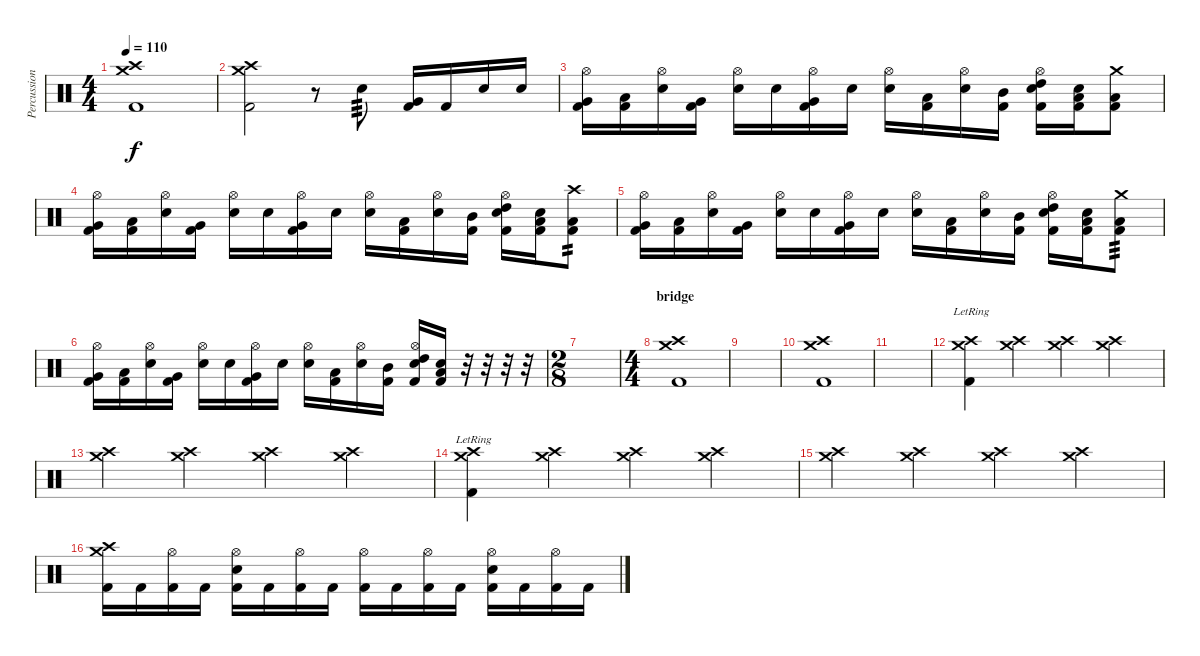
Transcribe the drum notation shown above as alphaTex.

\track ("Percussion" "Percussion") {instrument percussion}
\staff {score}
\articulation defaults
\ts (4 4)
\tempo 110
\clef neutral
\ks c
("Crash high (hit)" "Crash medium (hit)" "Kick (hit) 2").1{dy f} |
("Crash high (hit)" "Crash medium (hit)" "Kick (hit) 2").2 r.8 "Electric Snare (hit)".8{tp 3} ("Very Low Tom (hit)" "Kick (hit) 2").16 "Kick (hit) 2".16 "Electric Snare (hit)".16 "Electric Snare (hit)".16 |
("Hi-Hat (open)" "Very Low Tom (hit)" "Kick (hit) 2").16 ("Low Floor Tom (hit)" "Kick (hit) 2").16 ("Hi-Hat (open)" "Electric Snare (hit)").16 ("Very Low Tom (hit)" "Kick (hit) 2").16 ("Hi-Hat (open)" "Electric Snare (hit)").16 "Electric Snare (hit)".16 ("Hi-Hat (open)" "Very Low Tom (hit)" "Kick (hit) 2").16 "Electric Snare (hit)".16 ("Hi-Hat (open)" "Electric Snare (hit)").16 ("Low Floor Tom (hit)" "Kick (hit) 2").16 ("Hi-Hat (open)" "Electric Snare (hit)").16 ("Mid Tom (hit)" "Kick (hit) 2").16 ("Hi-Hat (open)" "Electric Snare (hit)" "High Tom (hit)" "Kick (hit) 2").16 ("Electric Snare (hit)" "Low Tom (hit)" "Kick (hit) 2").16 ("Crash medium (hit)" "Low Floor Tom (hit)" "Kick (hit) 2").8 |
("Hi-Hat (open)" "Very Low Tom (hit)" "Kick (hit) 2").16 ("Low Floor Tom (hit)" "Kick (hit) 2").16 ("Hi-Hat (open)" "Electric Snare (hit)").16 ("Very Low Tom (hit)" "Kick (hit) 2").16 ("Hi-Hat (open)" "Electric Snare (hit)").16 "Electric Snare (hit)".16 ("Hi-Hat (open)" "Very Low Tom (hit)" "Kick (hit) 2").16 "Electric Snare (hit)".16 ("Hi-Hat (open)" "Electric Snare (hit)").16 ("Low Floor Tom (hit)" "Kick (hit) 2").16 ("Hi-Hat (open)" "Electric Snare (hit)").16 ("Mid Tom (hit)" "Kick (hit) 2").16 ("Hi-Hat (open)" "Electric Snare (hit)" "High Tom (hit)" "Kick (hit) 2").16 ("Electric Snare (hit)" "Low Tom (hit)" "Kick (hit) 2").16 ("Crash high (hit)" "Low Floor Tom (hit)" "Kick (hit) 2").8{tp 2} |
("Hi-Hat (open)" "Very Low Tom (hit)" "Kick (hit) 2").16 ("Low Floor Tom (hit)" "Kick (hit) 2").16 ("Hi-Hat (open)" "Electric Snare (hit)").16 ("Very Low Tom (hit)" "Kick (hit) 2").16 ("Hi-Hat (open)" "Electric Snare (hit)").16 "Electric Snare (hit)".16 ("Hi-Hat (open)" "Very Low Tom (hit)" "Kick (hit) 2").16 "Electric Snare (hit)".16 ("Hi-Hat (open)" "Electric Snare (hit)").16 ("Low Floor Tom (hit)" "Kick (hit) 2").16 ("Hi-Hat (open)" "Electric Snare (hit)").16 ("Mid Tom (hit)" "Kick (hit) 2").16 ("Hi-Hat (open)" "Electric Snare (hit)" "High Tom (hit)" "Kick (hit) 2").16 ("Electric Snare (hit)" "Low Tom (hit)" "Kick (hit) 2").16 ("Crash medium (hit)" "Low Floor Tom (hit)" "Kick (hit) 2").8{tp 3} |
("Hi-Hat (open)" "Very Low Tom (hit)" "Kick (hit) 2").16 ("Low Floor Tom (hit)" "Kick (hit) 2").16 ("Hi-Hat (open)" "Electric Snare (hit)").16 ("Very Low Tom (hit)" "Kick (hit) 2").16 ("Hi-Hat (open)" "Electric Snare (hit)").16 "Electric Snare (hit)".16 ("Hi-Hat (open)" "Very Low Tom (hit)" "Kick (hit) 2").16 "Electric Snare (hit)".16 ("Hi-Hat (open)" "Electric Snare (hit)").16 ("Low Floor Tom (hit)" "Kick (hit) 2").16 ("Hi-Hat (open)" "Electric Snare (hit)").16 ("Mid Tom (hit)" "Kick (hit) 2").16 ("Hi-Hat (open)" "Electric Snare (hit)" "High Tom (hit)" "Kick (hit) 2").16 ("Electric Snare (hit)" "Low Tom (hit)" "Kick (hit) 2").16 r.32 r.32 r.32 r.32 |
\ts (2 8)
|
\ts (4 4)
\section ("" "bridge")
("Crash medium (hit)" "Crash high (hit)" "Kick (hit) 2").1 |
|
("Crash medium (hit)" "Crash high (hit)" "Kick (hit) 2").1 |
|
("Crash medium (hit)" "Crash high (hit)"{lr} "Kick (hit) 2").4 ("Crash medium (hit)" "Crash high (hit)").4 ("Crash medium (hit)" "Crash high (hit)").4 ("Crash medium (hit)" "Crash high (hit)").4 |
("Crash medium (hit)" "Crash high (hit)").4 ("Crash medium (hit)" "Crash high (hit)").4 ("Crash medium (hit)" "Crash high (hit)").4 ("Crash medium (hit)" "Crash high (hit)").4 |
("Crash medium (hit)" "Crash high (hit)"{lr} "Kick (hit) 2").4 ("Crash medium (hit)" "Crash high (hit)").4 ("Crash medium (hit)" "Crash high (hit)").4 ("Crash medium (hit)" "Crash high (hit)").4 |
("Crash medium (hit)" "Crash high (hit)").4 ("Crash medium (hit)" "Crash high (hit)").4 ("Crash medium (hit)" "Crash high (hit)").4 ("Crash medium (hit)" "Crash high (hit)").4 |
("Crash medium (hit)" "Crash high (hit)" "Kick (hit) 2").16 "Kick (hit) 2".16 ("Hi-Hat (open)" "Kick (hit) 2").16 "Kick (hit) 2".16 ("Hi-Hat (open)" "Electric Snare (hit)" "Kick (hit) 2").16 "Kick (hit) 2".16 ("Hi-Hat (open)" "Kick (hit) 2").16 "Kick (hit) 2".16 ("Hi-Hat (open)" "Kick (hit) 2").16 "Kick (hit) 2".16 ("Hi-Hat (open)" "Kick (hit) 2").16 "Kick (hit) 2".16 ("Hi-Hat (open)" "Electric Snare (hit)" "Kick (hit) 2").16 "Kick (hit) 2".16 ("Hi-Hat (open)" "Kick (hit) 2").16 "Kick (hit) 2".16
